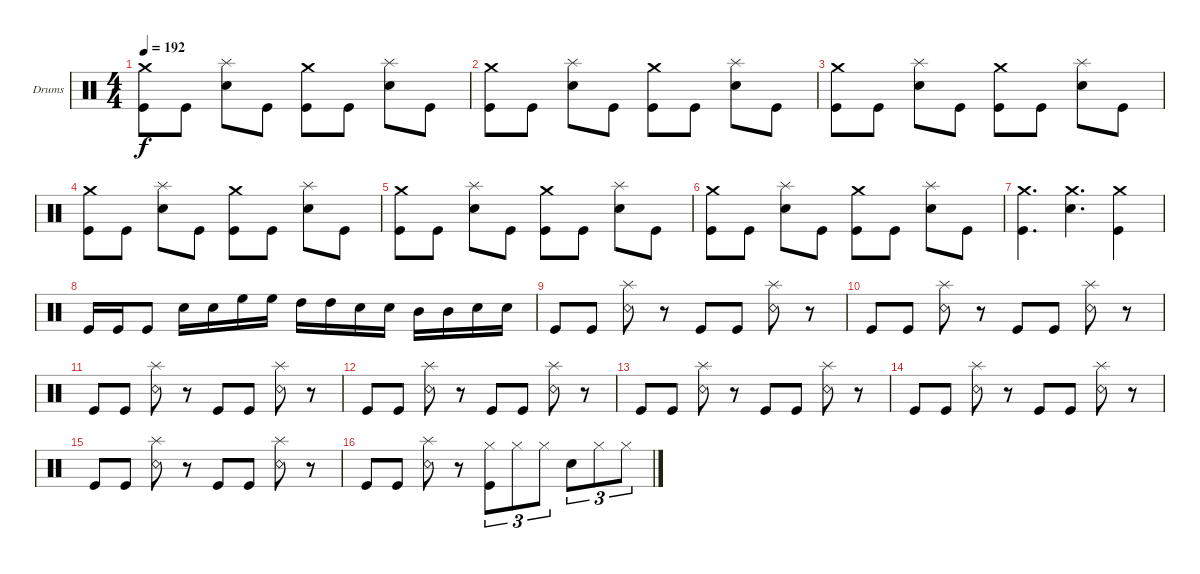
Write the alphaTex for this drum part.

\defaultSystemsLayout 4
\bracketExtendMode groupsimilarinstruments
\firstSystemTrackNameOrientation horizontal
\otherSystemsTrackNameOrientation horizontal
\track ("Drumkit" "Drums") {instrument percussion}
\staff {score}
\articulation defaults
\ts (4 4)
\tempo 192
\clef neutral
\ks c
("Crash medium (hit)" "Kick (hit)").8{dy f} "Kick (hit)".8 ("Snare (hit) 2" "Splash (hit)").8 "Kick (hit)".8 ("Crash medium (hit)" "Kick (hit)").8 "Kick (hit)".8 ("Snare (hit) 2" "Splash (hit)").8 "Kick (hit)".8 |
("Crash medium (hit)" "Kick (hit)").8 "Kick (hit)".8 ("Snare (hit) 2" "Splash (hit)").8 "Kick (hit)".8 ("Crash medium (hit)" "Kick (hit)").8 "Kick (hit)".8 ("Snare (hit) 2" "Splash (hit)").8 "Kick (hit)".8 |
("Crash medium (hit)" "Kick (hit)").8 "Kick (hit)".8 ("Snare (hit) 2" "Splash (hit)").8 "Kick (hit)".8 ("Crash medium (hit)" "Kick (hit)").8 "Kick (hit)".8 ("Snare (hit) 2" "Splash (hit)").8 "Kick (hit)".8 |
("Crash medium (hit)" "Kick (hit)").8 "Kick (hit)".8 ("Snare (hit) 2" "Splash (hit)").8 "Kick (hit)".8 ("Crash medium (hit)" "Kick (hit)").8 "Kick (hit)".8 ("Snare (hit) 2" "Splash (hit)").8 "Kick (hit)".8 |
("Crash medium (hit)" "Kick (hit)").8 "Kick (hit)".8 ("Snare (hit) 2" "Splash (hit)").8 "Kick (hit)".8 ("Crash medium (hit)" "Kick (hit)").8 "Kick (hit)".8 ("Snare (hit) 2" "Splash (hit)").8 "Kick (hit)".8 |
("Crash medium (hit)" "Kick (hit)").8 "Kick (hit)".8 ("Snare (hit) 2" "Splash (hit)").8 "Kick (hit)".8 ("Crash medium (hit)" "Kick (hit)").8 "Kick (hit)".8 ("Snare (hit) 2" "Splash (hit)").8 "Kick (hit)".8 |
("Crash medium (hit)" "Kick (hit)").4{d} ("Crash medium (hit)" "Snare (hit) 2").4{d} ("Crash medium (hit)" "Kick (hit)").4 |
"Kick (hit)".16 "Kick (hit)".16 "Kick (hit)".8 "Snare (hit) 2".16 "Snare (hit) 2".16 "High Floor Tom (hit)".16 "High Floor Tom (hit)".16 "High Tom (hit)".16 "High Tom (hit)".16 "Snare (hit) 2".16 "Snare (hit) 2".16 "Mid Tom (hit)".16 "Mid Tom (hit)".16 "Snare (hit) 2".16 "Snare (hit) 2".16 |
"Kick (hit)".8 "Kick (hit)".8 ("Snare (rim shot)" "Splash (hit)").8 r.8 "Kick (hit)".8 "Kick (hit)".8 ("Snare (rim shot)" "Splash (hit)").8 r.8 |
"Kick (hit)".8 "Kick (hit)".8 ("Snare (rim shot)" "Splash (hit)").8 r.8 "Kick (hit)".8 "Kick (hit)".8 ("Snare (rim shot)" "Splash (hit)").8 r.8 |
"Kick (hit)".8 "Kick (hit)".8 ("Snare (rim shot)" "Splash (hit)").8 r.8 "Kick (hit)".8 "Kick (hit)".8 ("Snare (rim shot)" "Splash (hit)").8 r.8 |
"Kick (hit)".8 "Kick (hit)".8 ("Snare (rim shot)" "Splash (hit)").8 r.8 "Kick (hit)".8 "Kick (hit)".8 ("Snare (rim shot)" "Splash (hit)").8 r.8 |
"Kick (hit)".8 "Kick (hit)".8 ("Snare (rim shot)" "Splash (hit)").8 r.8 "Kick (hit)".8 "Kick (hit)".8 ("Snare (rim shot)" "Splash (hit)").8 r.8 |
"Kick (hit)".8 "Kick (hit)".8 ("Snare (rim shot)" "Splash (hit)").8 r.8 "Kick (hit)".8 "Kick (hit)".8 ("Snare (rim shot)" "Splash (hit)").8 r.8 |
"Kick (hit)".8 "Kick (hit)".8 ("Snare (rim shot)" "Splash (hit)").8 r.8 "Kick (hit)".8 "Kick (hit)".8 ("Snare (rim shot)" "Splash (hit)").8 r.8 |
"Kick (hit)".8 "Kick (hit)".8 ("Snare (rim shot)" "Splash (hit)").8 r.8 ("Hi-Hat (closed)" "Kick (hit)").8{tu (3 2)} "Hi-Hat (closed)".8{tu (3 2)} "Hi-Hat (closed)".8{tu (3 2)} "Snare (hit) 2".8{tu (3 2)} "Hi-Hat (closed)".8{tu (3 2)} "Hi-Hat (closed)".8{tu (3 2)}
